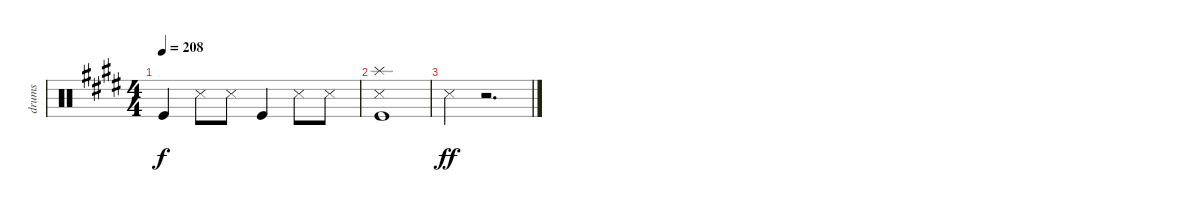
\track ("drums" "drums") {instrument percussion}
\staff {score}
\articulation defaults
\ts (4 4)
\tempo 208
\clef neutral
\ks e "Kick (hit)".4{dy f} "Snare (side stick) 3".8 "Snare (side stick) 3".8 "Kick (hit)".4 "Snare (side stick) 3".8 "Snare (side stick) 3".8
|
("Splash (hit)" "Snare (side stick) 3" "Kick (hit)").1 |
"Snare (side stick) 3".4{dy ff} r.2{d}
